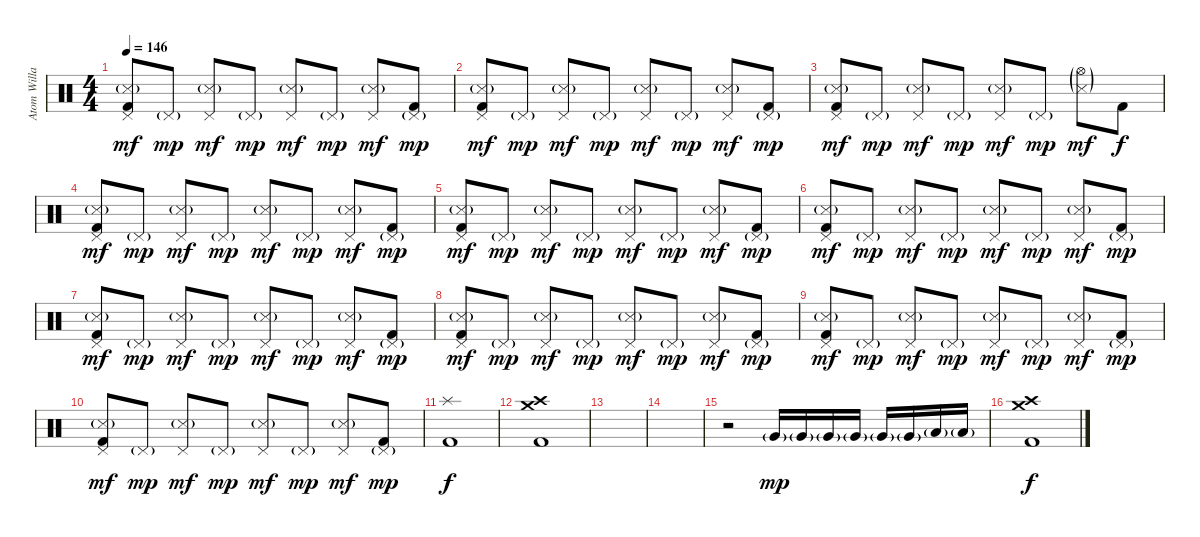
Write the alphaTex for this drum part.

\track ("Atom Willard" "Atom Willa") {instrument percussion}
\staff {score}
\articulation defaults
\ts (4 4)
\tempo 146
\clef neutral
\ks c
("Pedal Hi-Hat (hit)" "Metronome (hit)"{g} "Kick (hit) 2").8{dy mf} "Pedal Hi-Hat (hit)"{g}.8{dy mp} ("Pedal Hi-Hat (hit)" "Metronome (hit)"{g}).8{dy mf} "Pedal Hi-Hat (hit)"{g}.8{dy mp} ("Pedal Hi-Hat (hit)" "Metronome (hit)"{g}).8{dy mf} "Pedal Hi-Hat (hit)"{g}.8{dy mp} ("Pedal Hi-Hat (hit)" "Metronome (hit)"{g}).8{dy mf} ("Pedal Hi-Hat (hit)"{g} "Kick (hit) 2").8{dy mp} |
("Pedal Hi-Hat (hit)" "Metronome (hit)"{g} "Kick (hit) 2").8{dy mf} "Pedal Hi-Hat (hit)"{g}.8{dy mp} ("Pedal Hi-Hat (hit)" "Metronome (hit)"{g}).8{dy mf} "Pedal Hi-Hat (hit)"{g}.8{dy mp} ("Pedal Hi-Hat (hit)" "Metronome (hit)"{g}).8{dy mf} "Pedal Hi-Hat (hit)"{g}.8{dy mp} ("Pedal Hi-Hat (hit)" "Metronome (hit)"{g}).8{dy mf} ("Pedal Hi-Hat (hit)"{g} "Kick (hit) 2").8{dy mp} |
("Pedal Hi-Hat (hit)" "Metronome (hit)"{g} "Kick (hit) 2").8{dy mf} "Pedal Hi-Hat (hit)"{g}.8{dy mp} ("Pedal Hi-Hat (hit)" "Metronome (hit)"{g}).8{dy mf} "Pedal Hi-Hat (hit)"{g}.8{dy mp} ("Pedal Hi-Hat (hit)" "Metronome (hit)"{g}).8{dy mf} "Pedal Hi-Hat (hit)"{g}.8{dy mp} ("Hi-Hat (open)"{g} "Metronome (hit)"{g}).8{dy mf} "Kick (hit) 2".8{dy f} |
("Pedal Hi-Hat (hit)" "Metronome (hit)"{g} "Kick (hit) 2").8{dy mf} "Pedal Hi-Hat (hit)"{g}.8{dy mp} ("Pedal Hi-Hat (hit)" "Metronome (hit)"{g}).8{dy mf} "Pedal Hi-Hat (hit)"{g}.8{dy mp} ("Pedal Hi-Hat (hit)" "Metronome (hit)"{g}).8{dy mf} "Pedal Hi-Hat (hit)"{g}.8{dy mp} ("Pedal Hi-Hat (hit)" "Metronome (hit)"{g}).8{dy mf} ("Pedal Hi-Hat (hit)"{g} "Kick (hit) 2").8{dy mp} |
("Pedal Hi-Hat (hit)" "Metronome (hit)"{g} "Kick (hit) 2").8{dy mf} "Pedal Hi-Hat (hit)"{g}.8{dy mp} ("Pedal Hi-Hat (hit)" "Metronome (hit)"{g}).8{dy mf} "Pedal Hi-Hat (hit)"{g}.8{dy mp} ("Pedal Hi-Hat (hit)" "Metronome (hit)"{g}).8{dy mf} "Pedal Hi-Hat (hit)"{g}.8{dy mp} ("Pedal Hi-Hat (hit)" "Metronome (hit)"{g}).8{dy mf} ("Pedal Hi-Hat (hit)"{g} "Kick (hit) 2").8{dy mp} |
("Pedal Hi-Hat (hit)" "Metronome (hit)"{g} "Kick (hit) 2").8{dy mf} "Pedal Hi-Hat (hit)"{g}.8{dy mp} ("Pedal Hi-Hat (hit)" "Metronome (hit)"{g}).8{dy mf} "Pedal Hi-Hat (hit)"{g}.8{dy mp} ("Pedal Hi-Hat (hit)" "Metronome (hit)"{g}).8{dy mf} "Pedal Hi-Hat (hit)"{g}.8{dy mp} ("Pedal Hi-Hat (hit)" "Metronome (hit)"{g}).8{dy mf} ("Pedal Hi-Hat (hit)"{g} "Kick (hit) 2").8{dy mp} |
("Pedal Hi-Hat (hit)" "Metronome (hit)"{g} "Kick (hit) 2").8{dy mf} "Pedal Hi-Hat (hit)"{g}.8{dy mp} ("Pedal Hi-Hat (hit)" "Metronome (hit)"{g}).8{dy mf} "Pedal Hi-Hat (hit)"{g}.8{dy mp} ("Pedal Hi-Hat (hit)" "Metronome (hit)"{g}).8{dy mf} "Pedal Hi-Hat (hit)"{g}.8{dy mp} ("Pedal Hi-Hat (hit)" "Metronome (hit)"{g}).8{dy mf} ("Pedal Hi-Hat (hit)"{g} "Kick (hit) 2").8{dy mp} |
("Pedal Hi-Hat (hit)" "Metronome (hit)"{g} "Kick (hit) 2").8{dy mf} "Pedal Hi-Hat (hit)"{g}.8{dy mp} ("Pedal Hi-Hat (hit)" "Metronome (hit)"{g}).8{dy mf} "Pedal Hi-Hat (hit)"{g}.8{dy mp} ("Pedal Hi-Hat (hit)" "Metronome (hit)"{g}).8{dy mf} "Pedal Hi-Hat (hit)"{g}.8{dy mp} ("Pedal Hi-Hat (hit)" "Metronome (hit)"{g}).8{dy mf} ("Pedal Hi-Hat (hit)"{g} "Kick (hit) 2").8{dy mp} |
("Pedal Hi-Hat (hit)" "Metronome (hit)"{g} "Kick (hit) 2").8{dy mf} "Pedal Hi-Hat (hit)"{g}.8{dy mp} ("Pedal Hi-Hat (hit)" "Metronome (hit)"{g}).8{dy mf} "Pedal Hi-Hat (hit)"{g}.8{dy mp} ("Pedal Hi-Hat (hit)" "Metronome (hit)"{g}).8{dy mf} "Pedal Hi-Hat (hit)"{g}.8{dy mp} ("Pedal Hi-Hat (hit)" "Metronome (hit)"{g}).8{dy mf} ("Pedal Hi-Hat (hit)"{g} "Kick (hit) 2").8{dy mp} |
("Pedal Hi-Hat (hit)" "Metronome (hit)"{g} "Kick (hit) 2").8{dy mf} "Pedal Hi-Hat (hit)"{g}.8{dy mp} ("Pedal Hi-Hat (hit)" "Metronome (hit)"{g}).8{dy mf} "Pedal Hi-Hat (hit)"{g}.8{dy mp} ("Pedal Hi-Hat (hit)" "Metronome (hit)"{g}).8{dy mf} "Pedal Hi-Hat (hit)"{g}.8{dy mp} ("Pedal Hi-Hat (hit)" "Metronome (hit)"{g}).8{dy mf} ("Pedal Hi-Hat (hit)"{g} "Kick (hit) 2").8{dy mp} |
("Splash (hit)" "Kick (hit) 2").1{dy f} |
("Crash high (hit)" "Crash medium (hit)" "Kick (hit) 2").1 |
|
|
r.2 "Very Low Tom (hit)"{g}.16{dy mp} "Very Low Tom (hit)"{g}.16 "Very Low Tom (hit)"{g}.16 "Very Low Tom (hit)"{g}.16 "Very Low Tom (hit)"{g}.16 "Very Low Tom (hit)"{g}.16 "Low Floor Tom (hit)"{g}.16 "Low Floor Tom (hit)"{g}.16 |
("Crash high (hit)" "Crash medium (hit)" "Kick (hit) 2").1{dy f}
